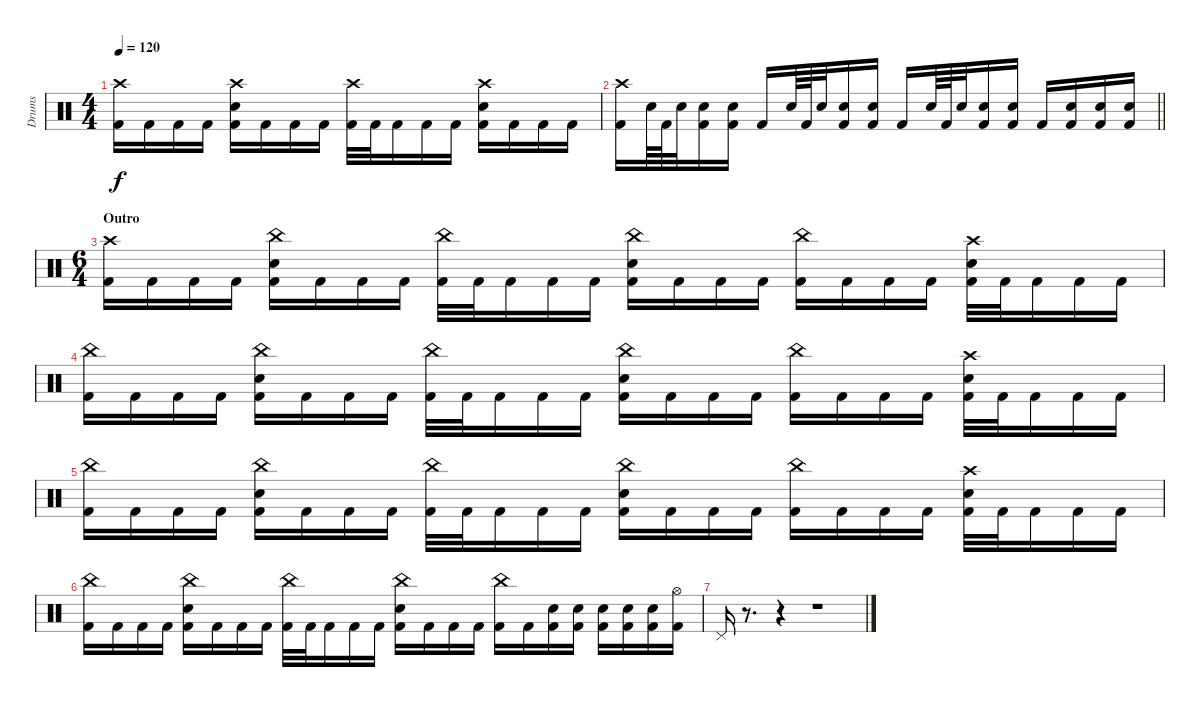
\track ("Drums" "Drums") {instrument percussion}
\staff {score}
\articulation defaults
\ts (4 4)
\tempo 120
\clef neutral
\ks c
("Crash high (hit)" "Kick (hit) 2").16{dy f} "Kick (hit) 2".16 "Kick (hit) 2".16 "Kick (hit) 2".16 ("Crash high (hit)" "Electric Snare (hit)" "Kick (hit) 2").16 "Kick (hit) 2".16 "Kick (hit) 2".16 "Kick (hit) 2".16 ("Crash high (hit)" "Kick (hit) 2").32 "Kick (hit) 2".32 "Kick (hit) 2".16 "Kick (hit) 2".16 "Kick (hit) 2".16 ("Crash high (hit)" "Electric Snare (hit)" "Kick (hit) 2").16 "Kick (hit) 2".16 "Kick (hit) 2".16 "Kick (hit) 2".16 |
\barLineRight lightlight
("Crash high (hit)" "Kick (hit) 2").16 "Electric Snare (hit)".64 "Kick (hit) 2".64 "Electric Snare (hit)".32 ("Electric Snare (hit)" "Kick (hit) 2").16 ("Electric Snare (hit)" "Kick (hit) 2").16 "Kick (hit) 2".16 "Electric Snare (hit)".64 "Kick (hit) 2".64 "Electric Snare (hit)".32 ("Electric Snare (hit)" "Kick (hit) 2").16 ("Electric Snare (hit)" "Kick (hit) 2").16 "Kick (hit) 2".16 "Electric Snare (hit)".64 "Kick (hit) 2".64 "Electric Snare (hit)".32 ("Electric Snare (hit)" "Kick (hit) 2").16 ("Electric Snare (hit)" "Kick (hit) 2").16 "Kick (hit) 2".16 ("Electric Snare (hit)" "Kick (hit) 2").16 ("Electric Snare (hit)" "Kick (hit) 2").16 ("Electric Snare (hit)" "Kick (hit) 2").16 |
\ts (6 4)
\section ("" "Outro")
("Crash high (hit)" "Kick (hit) 2").16 "Kick (hit) 2".16 "Kick (hit) 2".16 "Kick (hit) 2".16 ("China (hit)" "Electric Snare (hit)" "Kick (hit) 2").16 "Kick (hit) 2".16 "Kick (hit) 2".16 "Kick (hit) 2".16 ("China (hit)" "Kick (hit) 2").32 "Kick (hit) 2".32 "Kick (hit) 2".16 "Kick (hit) 2".16 "Kick (hit) 2".16 ("China (hit)" "Electric Snare (hit)" "Kick (hit) 2").16 "Kick (hit) 2".16 "Kick (hit) 2".16 "Kick (hit) 2".16 ("China (hit)" "Kick (hit) 2").16 "Kick (hit) 2".16 "Kick (hit) 2".16 "Kick (hit) 2".16 ("Crash high (hit)" "Electric Snare (hit)" "Kick (hit) 2").32 "Kick (hit) 2".32 "Kick (hit) 2".16 "Kick (hit) 2".16 "Kick (hit) 2".16 |
("China (hit)" "Kick (hit) 2").16 "Kick (hit) 2".16 "Kick (hit) 2".16 "Kick (hit) 2".16 ("China (hit)" "Electric Snare (hit)" "Kick (hit) 2").16 "Kick (hit) 2".16 "Kick (hit) 2".16 "Kick (hit) 2".16 ("China (hit)" "Kick (hit) 2").32 "Kick (hit) 2".32 "Kick (hit) 2".16 "Kick (hit) 2".16 "Kick (hit) 2".16 ("China (hit)" "Electric Snare (hit)" "Kick (hit) 2").16 "Kick (hit) 2".16 "Kick (hit) 2".16 "Kick (hit) 2".16 ("China (hit)" "Kick (hit) 2").16 "Kick (hit) 2".16 "Kick (hit) 2".16 "Kick (hit) 2".16 ("Crash high (hit)" "Electric Snare (hit)" "Kick (hit) 2").32 "Kick (hit) 2".32 "Kick (hit) 2".16 "Kick (hit) 2".16 "Kick (hit) 2".16 |
("China (hit)" "Kick (hit) 2").16 "Kick (hit) 2".16 "Kick (hit) 2".16 "Kick (hit) 2".16 ("China (hit)" "Electric Snare (hit)" "Kick (hit) 2").16 "Kick (hit) 2".16 "Kick (hit) 2".16 "Kick (hit) 2".16 ("China (hit)" "Kick (hit) 2").32 "Kick (hit) 2".32 "Kick (hit) 2".16 "Kick (hit) 2".16 "Kick (hit) 2".16 ("China (hit)" "Electric Snare (hit)" "Kick (hit) 2").16 "Kick (hit) 2".16 "Kick (hit) 2".16 "Kick (hit) 2".16 ("China (hit)" "Kick (hit) 2").16 "Kick (hit) 2".16 "Kick (hit) 2".16 "Kick (hit) 2".16 ("Crash high (hit)" "Electric Snare (hit)" "Kick (hit) 2").32 "Kick (hit) 2".32 "Kick (hit) 2".16 "Kick (hit) 2".16 "Kick (hit) 2".16 |
("China (hit)" "Kick (hit) 2").16 "Kick (hit) 2".16 "Kick (hit) 2".16 "Kick (hit) 2".16 ("China (hit)" "Electric Snare (hit)" "Kick (hit) 2").16 "Kick (hit) 2".16 "Kick (hit) 2".16 "Kick (hit) 2".16 ("China (hit)" "Kick (hit) 2").32 "Kick (hit) 2".32 "Kick (hit) 2".16 "Kick (hit) 2".16 "Kick (hit) 2".16 ("China (hit)" "Electric Snare (hit)" "Kick (hit) 2").16 "Kick (hit) 2".16 "Kick (hit) 2".16 "Kick (hit) 2".16 ("China (hit)" "Kick (hit) 2").16 "Kick (hit) 2".16 ("Electric Snare (hit)" "Kick (hit) 2").16 ("Electric Snare (hit)" "Kick (hit) 2").16 ("Electric Snare (hit)" "Kick (hit) 2").16 ("Electric Snare (hit)" "Kick (hit) 2").16 ("Electric Snare (hit)" "Kick (hit) 2").16 ("Hi-Hat (open)" "Kick (hit) 2").16 |
"Pedal Hi-Hat (hit)".16 r.8{d} r.4 r.1
